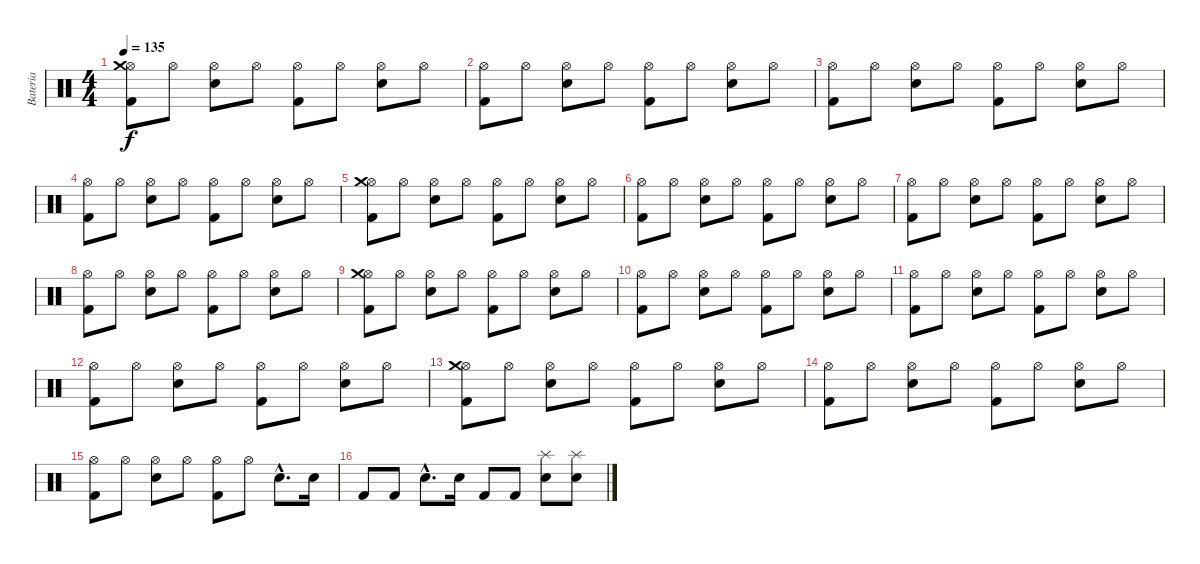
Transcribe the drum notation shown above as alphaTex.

\track ("Bateria" "Bateria") {instrument percussion}
\staff {score}
\articulation defaults
\ts (4 4)
\tempo 135
\clef neutral
\ks c
("Kick (hit) 2" "Hi-Hat (open)" "Crash medium (hit)").8{dy f} "Hi-Hat (open)".8 ("Electric Snare (hit)" "Hi-Hat (open)").8 "Hi-Hat (open)".8 ("Kick (hit) 2" "Hi-Hat (open)").8 "Hi-Hat (open)".8 ("Electric Snare (hit)" "Hi-Hat (open)").8 "Hi-Hat (open)".8 |
("Kick (hit) 2" "Hi-Hat (open)").8 "Hi-Hat (open)".8 ("Electric Snare (hit)" "Hi-Hat (open)").8 "Hi-Hat (open)".8 ("Kick (hit) 2" "Hi-Hat (open)").8 "Hi-Hat (open)".8 ("Electric Snare (hit)" "Hi-Hat (open)").8 "Hi-Hat (open)".8 |
("Kick (hit) 2" "Hi-Hat (open)").8 "Hi-Hat (open)".8 ("Electric Snare (hit)" "Hi-Hat (open)").8 "Hi-Hat (open)".8 ("Kick (hit) 2" "Hi-Hat (open)").8 "Hi-Hat (open)".8 ("Electric Snare (hit)" "Hi-Hat (open)").8 "Hi-Hat (open)".8 |
("Kick (hit) 2" "Hi-Hat (open)").8 "Hi-Hat (open)".8 ("Electric Snare (hit)" "Hi-Hat (open)").8 "Hi-Hat (open)".8 ("Kick (hit) 2" "Hi-Hat (open)").8 "Hi-Hat (open)".8 ("Electric Snare (hit)" "Hi-Hat (open)").8 "Hi-Hat (open)".8 |
("Kick (hit) 2" "Hi-Hat (open)" "Crash medium (hit)").8 "Hi-Hat (open)".8 ("Electric Snare (hit)" "Hi-Hat (open)").8 "Hi-Hat (open)".8 ("Kick (hit) 2" "Hi-Hat (open)").8 "Hi-Hat (open)".8 ("Electric Snare (hit)" "Hi-Hat (open)").8 "Hi-Hat (open)".8 |
("Kick (hit) 2" "Hi-Hat (open)").8 "Hi-Hat (open)".8 ("Electric Snare (hit)" "Hi-Hat (open)").8 "Hi-Hat (open)".8 ("Kick (hit) 2" "Hi-Hat (open)").8 "Hi-Hat (open)".8 ("Electric Snare (hit)" "Hi-Hat (open)").8 "Hi-Hat (open)".8 |
("Kick (hit) 2" "Hi-Hat (open)").8 "Hi-Hat (open)".8 ("Electric Snare (hit)" "Hi-Hat (open)").8 "Hi-Hat (open)".8 ("Kick (hit) 2" "Hi-Hat (open)").8 "Hi-Hat (open)".8 ("Electric Snare (hit)" "Hi-Hat (open)").8 "Hi-Hat (open)".8 |
("Kick (hit) 2" "Hi-Hat (open)").8 "Hi-Hat (open)".8 ("Electric Snare (hit)" "Hi-Hat (open)").8 "Hi-Hat (open)".8 ("Kick (hit) 2" "Hi-Hat (open)").8 "Hi-Hat (open)".8 ("Electric Snare (hit)" "Hi-Hat (open)").8 "Hi-Hat (open)".8 |
("Kick (hit) 2" "Hi-Hat (open)" "Crash medium (hit)").8 "Hi-Hat (open)".8 ("Electric Snare (hit)" "Hi-Hat (open)").8 "Hi-Hat (open)".8 ("Kick (hit) 2" "Hi-Hat (open)").8 "Hi-Hat (open)".8 ("Electric Snare (hit)" "Hi-Hat (open)").8 "Hi-Hat (open)".8 |
("Kick (hit) 2" "Hi-Hat (open)").8 "Hi-Hat (open)".8 ("Electric Snare (hit)" "Hi-Hat (open)").8 "Hi-Hat (open)".8 ("Kick (hit) 2" "Hi-Hat (open)").8 "Hi-Hat (open)".8 ("Electric Snare (hit)" "Hi-Hat (open)").8 "Hi-Hat (open)".8 |
("Kick (hit) 2" "Hi-Hat (open)").8 "Hi-Hat (open)".8 ("Electric Snare (hit)" "Hi-Hat (open)").8 "Hi-Hat (open)".8 ("Kick (hit) 2" "Hi-Hat (open)").8 "Hi-Hat (open)".8 ("Electric Snare (hit)" "Hi-Hat (open)").8 "Hi-Hat (open)".8 |
("Kick (hit) 2" "Hi-Hat (open)").8 "Hi-Hat (open)".8 ("Electric Snare (hit)" "Hi-Hat (open)").8 "Hi-Hat (open)".8 ("Kick (hit) 2" "Hi-Hat (open)").8 "Hi-Hat (open)".8 ("Electric Snare (hit)" "Hi-Hat (open)").8 "Hi-Hat (open)".8 |
("Kick (hit) 2" "Hi-Hat (open)" "Crash medium (hit)").8 "Hi-Hat (open)".8 ("Electric Snare (hit)" "Hi-Hat (open)").8 "Hi-Hat (open)".8 ("Kick (hit) 2" "Hi-Hat (open)").8 "Hi-Hat (open)".8 ("Electric Snare (hit)" "Hi-Hat (open)").8 "Hi-Hat (open)".8 |
("Kick (hit) 2" "Hi-Hat (open)").8 "Hi-Hat (open)".8 ("Electric Snare (hit)" "Hi-Hat (open)").8 "Hi-Hat (open)".8 ("Kick (hit) 2" "Hi-Hat (open)").8 "Hi-Hat (open)".8 ("Electric Snare (hit)" "Hi-Hat (open)").8 "Hi-Hat (open)".8 |
("Kick (hit) 2" "Hi-Hat (open)").8 "Hi-Hat (open)".8 ("Electric Snare (hit)" "Hi-Hat (open)").8 "Hi-Hat (open)".8 ("Kick (hit) 2" "Hi-Hat (open)").8 "Hi-Hat (open)".8 "Electric Snare (hit)"{hac}.8{d} "Electric Snare (hit)".16 |
"Kick (hit) 2".8 "Kick (hit) 2".8 "Electric Snare (hit)"{hac}.8{d} "Electric Snare (hit)".16 "Kick (hit) 2".8 "Kick (hit) 2".8 ("Electric Snare (hit)" "Splash (hit)").8 ("Electric Snare (hit)" "Splash (hit)").8
